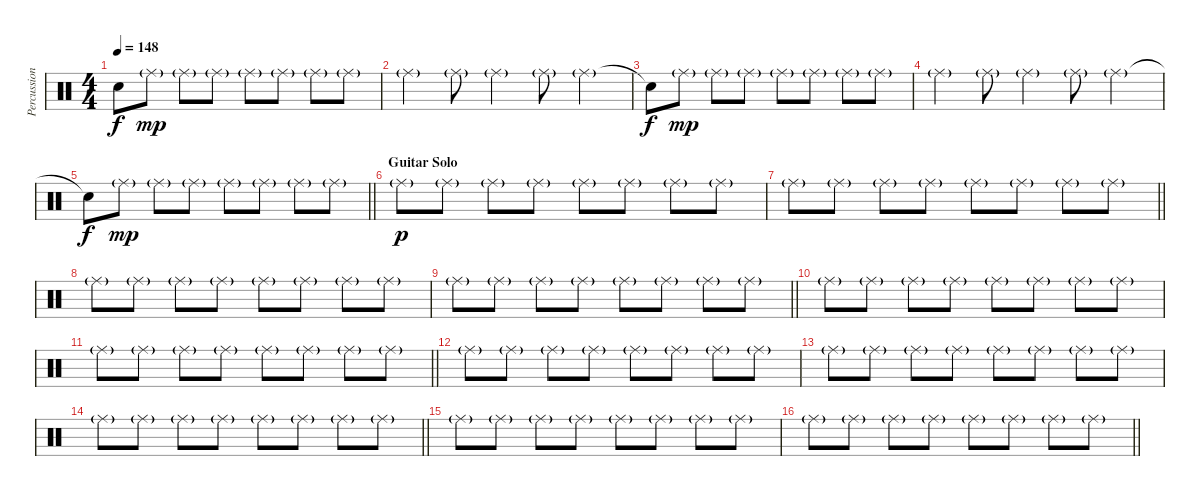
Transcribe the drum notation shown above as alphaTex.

\track ("Percussions" "Percussion") {instrument percussion}
\staff {score}
\articulation defaults
\ts (4 4)
\tempo 148
\clef neutral
\ks c "Snare (hit)"{t}.8{dy f} "Ride (middle)"{g}.8{dy mp} "Ride (middle)"{g}.8 "Ride (middle)"{g}.8 "Ride (middle)"{g}.8 "Ride (middle)"{g}.8 "Ride (middle)"{g}.8 "Ride (middle)"{g}.8
|
"Ride (middle)"{g}.4 "Ride (middle)"{g}.8 "Ride (middle)"{g}.4 "Ride (middle)"{g}.8 "Ride (middle)"{g}.4 |
"Snare (hit)"{t}.8{dy f} "Ride (middle)"{g}.8{dy mp} "Ride (middle)"{g}.8 "Ride (middle)"{g}.8 "Ride (middle)"{g}.8 "Ride (middle)"{g}.8 "Ride (middle)"{g}.8 "Ride (middle)"{g}.8 |
"Ride (middle)"{g}.4 "Ride (middle)"{g}.8 "Ride (middle)"{g}.4 "Ride (middle)"{g}.8 "Ride (middle)"{g}.4 |
\barLineRight lightlight "Snare (hit)"{t}.8{dy f} "Ride (middle)"{g}.8{dy mp} "Ride (middle)"{g}.8 "Ride (middle)"{g}.8 "Ride (middle)"{g}.8 "Ride (middle)"{g}.8 "Ride (middle)"{g}.8 "Ride (middle)"{g}.8
|
\section ("" "Guitar Solo")
"Ride (middle)"{g}.8{dy p} "Ride (middle)"{g}.8 "Ride (middle)"{g}.8 "Ride (middle)"{g}.8 "Ride (middle)"{g}.8 "Ride (middle)"{g}.8 "Ride (middle)"{g}.8 "Ride (middle)"{g}.8 |
\barLineRight lightlight "Ride (middle)"{g}.8 "Ride (middle)"{g}.8 "Ride (middle)"{g}.8 "Ride (middle)"{g}.8 "Ride (middle)"{g}.8 "Ride (middle)"{g}.8 "Ride (middle)"{g}.8 "Ride (middle)"{g}.8
|
"Ride (middle)"{g}.8 "Ride (middle)"{g}.8 "Ride (middle)"{g}.8 "Ride (middle)"{g}.8 "Ride (middle)"{g}.8 "Ride (middle)"{g}.8 "Ride (middle)"{g}.8 "Ride (middle)"{g}.8 |
\barLineRight lightlight "Ride (middle)"{g}.8 "Ride (middle)"{g}.8 "Ride (middle)"{g}.8 "Ride (middle)"{g}.8 "Ride (middle)"{g}.8 "Ride (middle)"{g}.8 "Ride (middle)"{g}.8 "Ride (middle)"{g}.8
|
"Ride (middle)"{g}.8 "Ride (middle)"{g}.8 "Ride (middle)"{g}.8 "Ride (middle)"{g}.8 "Ride (middle)"{g}.8 "Ride (middle)"{g}.8 "Ride (middle)"{g}.8 "Ride (middle)"{g}.8 |
\barLineRight lightlight "Ride (middle)"{g}.8 "Ride (middle)"{g}.8 "Ride (middle)"{g}.8 "Ride (middle)"{g}.8 "Ride (middle)"{g}.8 "Ride (middle)"{g}.8 "Ride (middle)"{g}.8 "Ride (middle)"{g}.8
|
"Ride (middle)"{g}.8 "Ride (middle)"{g}.8 "Ride (middle)"{g}.8 "Ride (middle)"{g}.8 "Ride (middle)"{g}.8 "Ride (middle)"{g}.8 "Ride (middle)"{g}.8 "Ride (middle)"{g}.8 |
"Ride (middle)"{g}.8 "Ride (middle)"{g}.8 "Ride (middle)"{g}.8 "Ride (middle)"{g}.8 "Ride (middle)"{g}.8 "Ride (middle)"{g}.8 "Ride (middle)"{g}.8 "Ride (middle)"{g}.8 |
\barLineRight lightlight "Ride (middle)"{g}.8 "Ride (middle)"{g}.8 "Ride (middle)"{g}.8 "Ride (middle)"{g}.8 "Ride (middle)"{g}.8 "Ride (middle)"{g}.8 "Ride (middle)"{g}.8 "Ride (middle)"{g}.8
|
"Ride (middle)"{g}.8 "Ride (middle)"{g}.8 "Ride (middle)"{g}.8 "Ride (middle)"{g}.8 "Ride (middle)"{g}.8 "Ride (middle)"{g}.8 "Ride (middle)"{g}.8 "Ride (middle)"{g}.8 |
\barLineRight lightlight "Ride (middle)"{g}.8 "Ride (middle)"{g}.8 "Ride (middle)"{g}.8 "Ride (middle)"{g}.8 "Ride (middle)"{g}.8 "Ride (middle)"{g}.8 "Ride (middle)"{g}.8 "Ride (middle)"{g}.8
